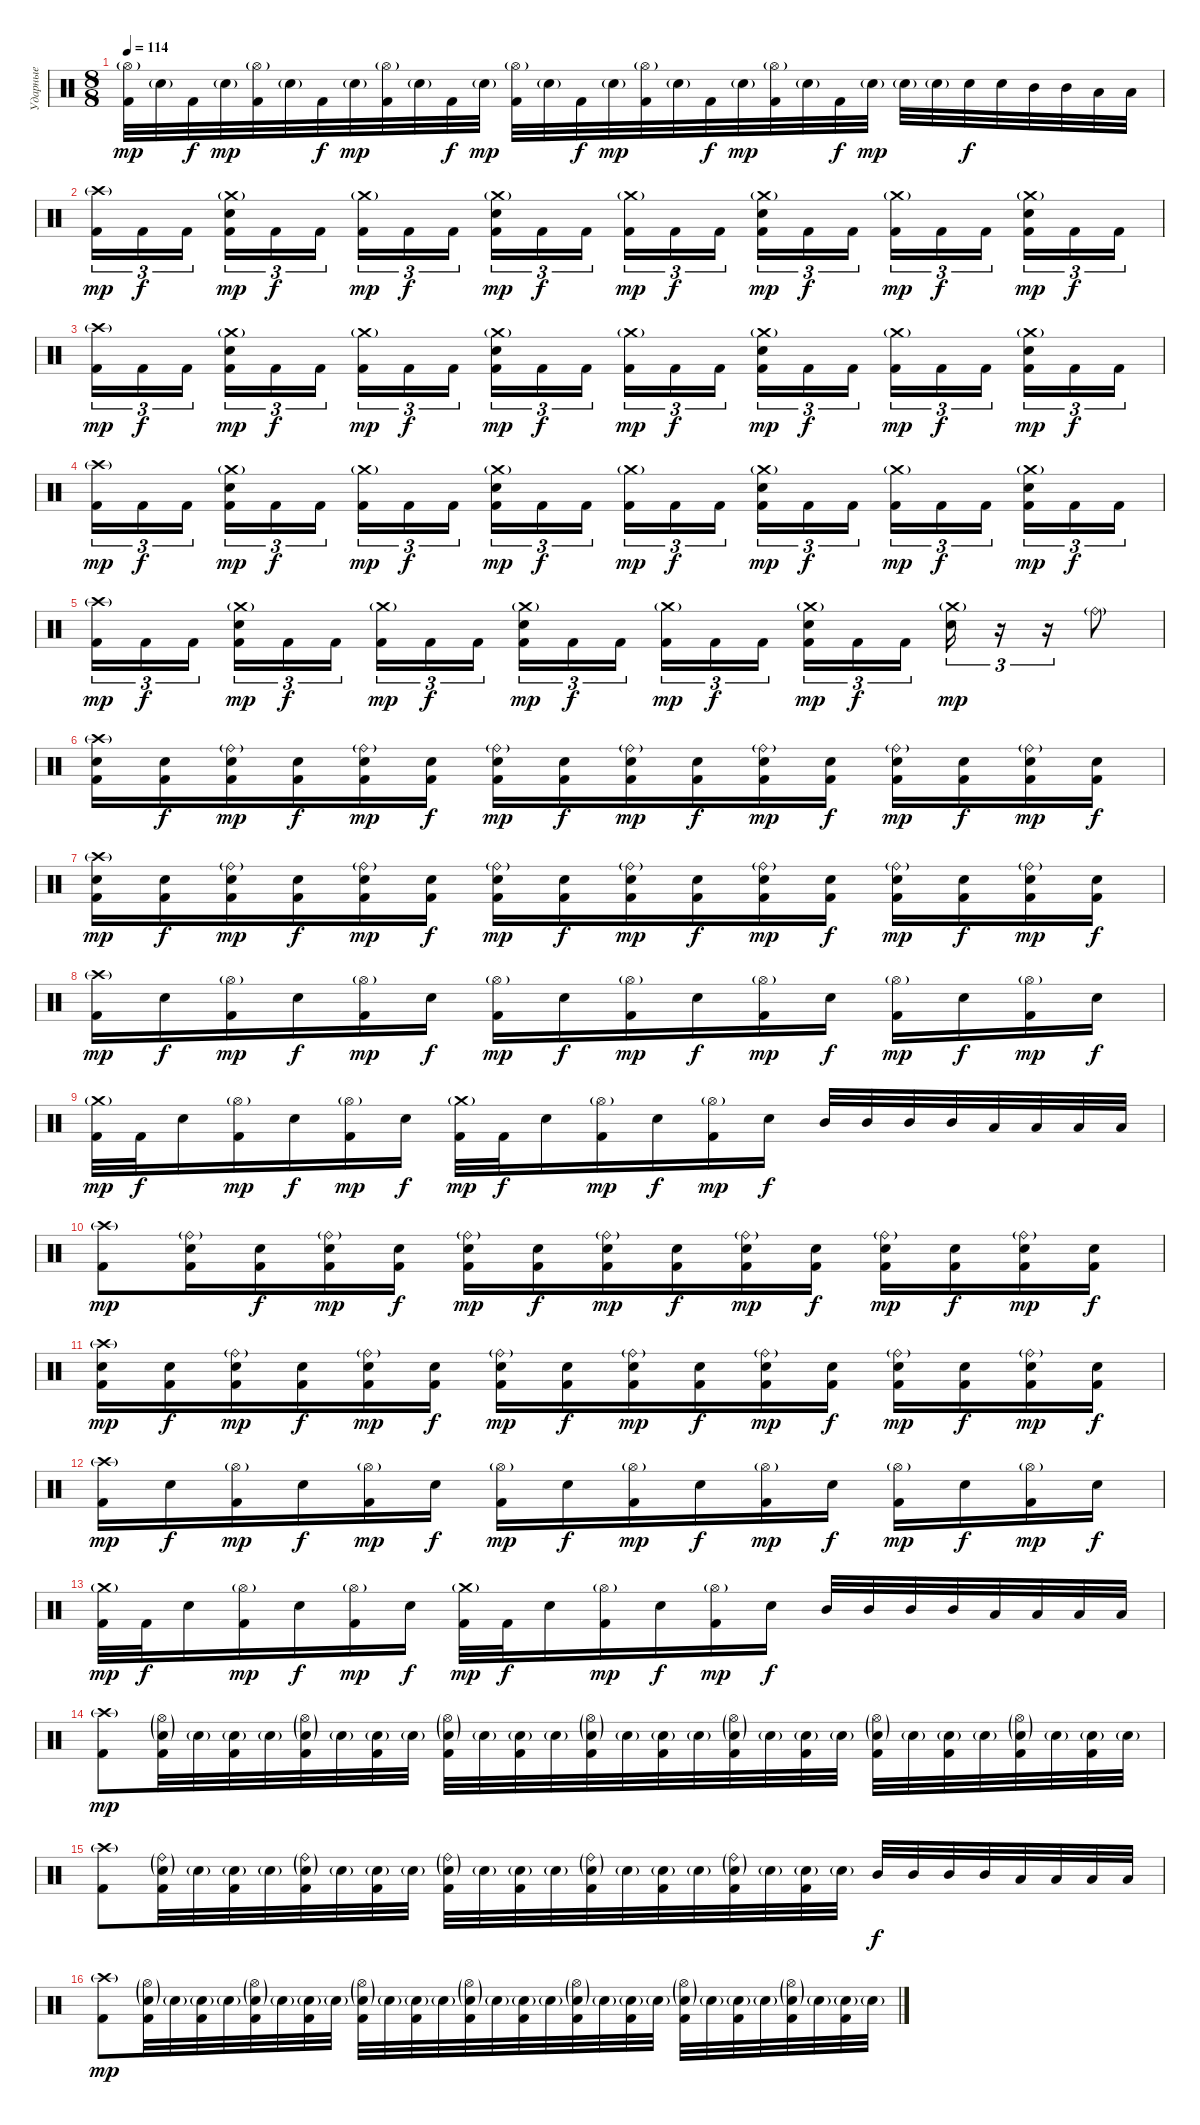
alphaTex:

\track ("Ударные" "Ударные") {instrument percussion}
\staff {score}
\articulation defaults
\ts (8 8)
\tempo 114
\clef neutral
\ks c
("Hi-Hat (open)"{g} "Kick (hit) 2").32{dy mp} "Electric Snare (hit)"{g}.32 "Kick (hit) 2".32{dy f} "Electric Snare (hit)"{g}.32{dy mp} ("Hi-Hat (open)"{g} "Kick (hit) 2").32 "Electric Snare (hit)"{g}.32 "Kick (hit) 2".32{dy f} "Electric Snare (hit)"{g}.32{dy mp} ("Hi-Hat (open)"{g} "Kick (hit) 2").32 "Electric Snare (hit)"{g}.32 "Kick (hit) 2".32{dy f} "Electric Snare (hit)"{g}.32{dy mp} ("Hi-Hat (open)"{g} "Kick (hit) 2").32 "Electric Snare (hit)"{g}.32 "Kick (hit) 2".32{dy f} "Electric Snare (hit)"{g}.32{dy mp} ("Hi-Hat (open)"{g} "Kick (hit) 2").32 "Electric Snare (hit)"{g}.32 "Kick (hit) 2".32{dy f} "Electric Snare (hit)"{g}.32{dy mp} ("Hi-Hat (open)"{g} "Kick (hit) 2").32 "Electric Snare (hit)"{g}.32 "Kick (hit) 2".32{dy f} "Electric Snare (hit)"{g}.32{dy mp} "Electric Snare (hit)"{g}.32 "Electric Snare (hit)"{g}.32 "Electric Snare (hit)".32{dy f} "Electric Snare (hit)".32 "Mid Tom (hit)".32 "Mid Tom (hit)".32 "Low Tom (hit)".32 "Low Tom (hit)".32 |
("Crash high (hit)"{g} "Kick (hit) 2").16{tu (3 2) dy mp} "Kick (hit) 2".16{tu (3 2) dy f} "Kick (hit) 2".16{tu (3 2)} ("Crash medium (hit)"{g} "Electric Snare (hit)" "Kick (hit) 2").16{tu (3 2) dy mp} "Kick (hit) 2".16{tu (3 2) dy f} "Kick (hit) 2".16{tu (3 2)} ("Crash medium (hit)"{g} "Kick (hit) 2").16{tu (3 2) dy mp} "Kick (hit) 2".16{tu (3 2) dy f} "Kick (hit) 2".16{tu (3 2)} ("Crash medium (hit)"{g} "Electric Snare (hit)" "Kick (hit) 2").16{tu (3 2) dy mp} "Kick (hit) 2".16{tu (3 2) dy f} "Kick (hit) 2".16{tu (3 2)} ("Crash medium (hit)"{g} "Kick (hit) 2").16{tu (3 2) dy mp} "Kick (hit) 2".16{tu (3 2) dy f} "Kick (hit) 2".16{tu (3 2)} ("Crash medium (hit)"{g} "Electric Snare (hit)" "Kick (hit) 2").16{tu (3 2) dy mp} "Kick (hit) 2".16{tu (3 2) dy f} "Kick (hit) 2".16{tu (3 2)} ("Crash medium (hit)"{g} "Kick (hit) 2").16{tu (3 2) dy mp} "Kick (hit) 2".16{tu (3 2) dy f} "Kick (hit) 2".16{tu (3 2)} ("Crash medium (hit)"{g} "Electric Snare (hit)" "Kick (hit) 2").16{tu (3 2) dy mp} "Kick (hit) 2".16{tu (3 2) dy f} "Kick (hit) 2".16{tu (3 2)} |
("Crash high (hit)"{g} "Kick (hit) 2").16{tu (3 2) dy mp} "Kick (hit) 2".16{tu (3 2) dy f} "Kick (hit) 2".16{tu (3 2)} ("Crash medium (hit)"{g} "Electric Snare (hit)" "Kick (hit) 2").16{tu (3 2) dy mp} "Kick (hit) 2".16{tu (3 2) dy f} "Kick (hit) 2".16{tu (3 2)} ("Crash medium (hit)"{g} "Kick (hit) 2").16{tu (3 2) dy mp} "Kick (hit) 2".16{tu (3 2) dy f} "Kick (hit) 2".16{tu (3 2)} ("Crash medium (hit)"{g} "Electric Snare (hit)" "Kick (hit) 2").16{tu (3 2) dy mp} "Kick (hit) 2".16{tu (3 2) dy f} "Kick (hit) 2".16{tu (3 2)} ("Crash medium (hit)"{g} "Kick (hit) 2").16{tu (3 2) dy mp} "Kick (hit) 2".16{tu (3 2) dy f} "Kick (hit) 2".16{tu (3 2)} ("Crash medium (hit)"{g} "Electric Snare (hit)" "Kick (hit) 2").16{tu (3 2) dy mp} "Kick (hit) 2".16{tu (3 2) dy f} "Kick (hit) 2".16{tu (3 2)} ("Crash medium (hit)"{g} "Kick (hit) 2").16{tu (3 2) dy mp} "Kick (hit) 2".16{tu (3 2) dy f} "Kick (hit) 2".16{tu (3 2)} ("Crash medium (hit)"{g} "Electric Snare (hit)" "Kick (hit) 2").16{tu (3 2) dy mp} "Kick (hit) 2".16{tu (3 2) dy f} "Kick (hit) 2".16{tu (3 2)} |
("Crash high (hit)"{g} "Kick (hit) 2").16{tu (3 2) dy mp} "Kick (hit) 2".16{tu (3 2) dy f} "Kick (hit) 2".16{tu (3 2)} ("Crash medium (hit)"{g} "Electric Snare (hit)" "Kick (hit) 2").16{tu (3 2) dy mp} "Kick (hit) 2".16{tu (3 2) dy f} "Kick (hit) 2".16{tu (3 2)} ("Crash medium (hit)"{g} "Kick (hit) 2").16{tu (3 2) dy mp} "Kick (hit) 2".16{tu (3 2) dy f} "Kick (hit) 2".16{tu (3 2)} ("Crash medium (hit)"{g} "Electric Snare (hit)" "Kick (hit) 2").16{tu (3 2) dy mp} "Kick (hit) 2".16{tu (3 2) dy f} "Kick (hit) 2".16{tu (3 2)} ("Crash medium (hit)"{g} "Kick (hit) 2").16{tu (3 2) dy mp} "Kick (hit) 2".16{tu (3 2) dy f} "Kick (hit) 2".16{tu (3 2)} ("Crash medium (hit)"{g} "Electric Snare (hit)" "Kick (hit) 2").16{tu (3 2) dy mp} "Kick (hit) 2".16{tu (3 2) dy f} "Kick (hit) 2".16{tu (3 2)} ("Crash medium (hit)"{g} "Kick (hit) 2").16{tu (3 2) dy mp} "Kick (hit) 2".16{tu (3 2) dy f} "Kick (hit) 2".16{tu (3 2)} ("Crash medium (hit)"{g} "Electric Snare (hit)" "Kick (hit) 2").16{tu (3 2) dy mp} "Kick (hit) 2".16{tu (3 2) dy f} "Kick (hit) 2".16{tu (3 2)} |
("Crash high (hit)"{g} "Kick (hit) 2").16{tu (3 2) dy mp} "Kick (hit) 2".16{tu (3 2) dy f} "Kick (hit) 2".16{tu (3 2)} ("Crash medium (hit)"{g} "Electric Snare (hit)" "Kick (hit) 2").16{tu (3 2) dy mp} "Kick (hit) 2".16{tu (3 2) dy f} "Kick (hit) 2".16{tu (3 2)} ("Crash medium (hit)"{g} "Kick (hit) 2").16{tu (3 2) dy mp} "Kick (hit) 2".16{tu (3 2) dy f} "Kick (hit) 2".16{tu (3 2)} ("Crash medium (hit)"{g} "Electric Snare (hit)" "Kick (hit) 2").16{tu (3 2) dy mp} "Kick (hit) 2".16{tu (3 2) dy f} "Kick (hit) 2".16{tu (3 2)} ("Crash medium (hit)"{g} "Kick (hit) 2").16{tu (3 2) dy mp} "Kick (hit) 2".16{tu (3 2) dy f} "Kick (hit) 2".16{tu (3 2)} ("Crash medium (hit)"{g} "Electric Snare (hit)" "Kick (hit) 2").16{tu (3 2) dy mp} "Kick (hit) 2".16{tu (3 2) dy f} "Kick (hit) 2".16{tu (3 2)} ("Crash medium (hit)"{g} "Electric Snare (hit)").16{tu (3 2) dy mp} r.16{tu (3 2)} r.16{tu (3 2)} "Ride (bell)"{g}.8 |
("Crash high (hit)"{g} "Electric Snare (hit)" "Kick (hit) 2").16 ("Electric Snare (hit)" "Kick (hit) 2").16{dy f} ("Ride (bell)"{g} "Electric Snare (hit)" "Kick (hit) 2").16{dy mp} ("Electric Snare (hit)" "Kick (hit) 2").16{dy f} ("Ride (bell)"{g} "Electric Snare (hit)" "Kick (hit) 2").16{dy mp} ("Electric Snare (hit)" "Kick (hit) 2").16{dy f} ("Ride (bell)"{g} "Electric Snare (hit)" "Kick (hit) 2").16{dy mp} ("Electric Snare (hit)" "Kick (hit) 2").16{dy f} ("Ride (bell)"{g} "Electric Snare (hit)" "Kick (hit) 2").16{dy mp} ("Electric Snare (hit)" "Kick (hit) 2").16{dy f} ("Ride (bell)"{g} "Electric Snare (hit)" "Kick (hit) 2").16{dy mp} ("Electric Snare (hit)" "Kick (hit) 2").16{dy f} ("Ride (bell)"{g} "Electric Snare (hit)" "Kick (hit) 2").16{dy mp} ("Electric Snare (hit)" "Kick (hit) 2").16{dy f} ("Ride (bell)"{g} "Electric Snare (hit)" "Kick (hit) 2").16{dy mp} ("Electric Snare (hit)" "Kick (hit) 2").16{dy f} |
("Crash high (hit)"{g} "Electric Snare (hit)" "Kick (hit) 2").16{dy mp} ("Electric Snare (hit)" "Kick (hit) 2").16{dy f} ("Ride (bell)"{g} "Electric Snare (hit)" "Kick (hit) 2").16{dy mp} ("Electric Snare (hit)" "Kick (hit) 2").16{dy f} ("Ride (bell)"{g} "Electric Snare (hit)" "Kick (hit) 2").16{dy mp} ("Electric Snare (hit)" "Kick (hit) 2").16{dy f} ("Ride (bell)"{g} "Electric Snare (hit)" "Kick (hit) 2").16{dy mp} ("Electric Snare (hit)" "Kick (hit) 2").16{dy f} ("Ride (bell)"{g} "Electric Snare (hit)" "Kick (hit) 2").16{dy mp} ("Electric Snare (hit)" "Kick (hit) 2").16{dy f} ("Ride (bell)"{g} "Electric Snare (hit)" "Kick (hit) 2").16{dy mp} ("Electric Snare (hit)" "Kick (hit) 2").16{dy f} ("Ride (bell)"{g} "Electric Snare (hit)" "Kick (hit) 2").16{dy mp} ("Electric Snare (hit)" "Kick (hit) 2").16{dy f} ("Ride (bell)"{g} "Electric Snare (hit)" "Kick (hit) 2").16{dy mp} ("Electric Snare (hit)" "Kick (hit) 2").16{dy f} |
("Crash high (hit)"{g} "Kick (hit) 2").16{dy mp} "Electric Snare (hit)".16{dy f} ("Hi-Hat (open)"{g} "Kick (hit) 2").16{dy mp} "Electric Snare (hit)".16{dy f} ("Hi-Hat (open)"{g} "Kick (hit) 2").16{dy mp} "Electric Snare (hit)".16{dy f} ("Hi-Hat (open)"{g} "Kick (hit) 2").16{dy mp} "Electric Snare (hit)".16{dy f} ("Hi-Hat (open)"{g} "Kick (hit) 2").16{dy mp} "Electric Snare (hit)".16{dy f} ("Hi-Hat (open)"{g} "Kick (hit) 2").16{dy mp} "Electric Snare (hit)".16{dy f} ("Hi-Hat (open)"{g} "Kick (hit) 2").16{dy mp} "Electric Snare (hit)".16{dy f} ("Hi-Hat (open)"{g} "Kick (hit) 2").16{dy mp} "Electric Snare (hit)".16{dy f} |
("Crash medium (hit)"{g} "Kick (hit) 2").32{dy mp} "Kick (hit) 2".32{dy f} "Electric Snare (hit)".16 ("Hi-Hat (open)"{g} "Kick (hit) 2").16{dy mp} "Electric Snare (hit)".16{dy f} ("Hi-Hat (open)"{g} "Kick (hit) 2").16{dy mp} "Electric Snare (hit)".16{dy f} ("Crash medium (hit)"{g} "Kick (hit) 2").32{dy mp} "Kick (hit) 2".32{dy f} "Electric Snare (hit)".16 ("Hi-Hat (open)"{g} "Kick (hit) 2").16{dy mp} "Electric Snare (hit)".16{dy f} ("Hi-Hat (open)"{g} "Kick (hit) 2").16{dy mp} "Electric Snare (hit)".16{dy f} "Mid Tom (hit)".32 "Mid Tom (hit)".32 "Mid Tom (hit)".32 "Mid Tom (hit)".32 "Low Tom (hit)".32 "Low Tom (hit)".32 "Low Tom (hit)".32 "Low Tom (hit)".32 |
("Crash high (hit)"{g} "Kick (hit) 2").8{dy mp} ("Ride (bell)"{g} "Electric Snare (hit)" "Kick (hit) 2").16 ("Electric Snare (hit)" "Kick (hit) 2").16{dy f} ("Ride (bell)"{g} "Electric Snare (hit)" "Kick (hit) 2").16{dy mp} ("Electric Snare (hit)" "Kick (hit) 2").16{dy f} ("Ride (bell)"{g} "Electric Snare (hit)" "Kick (hit) 2").16{dy mp} ("Electric Snare (hit)" "Kick (hit) 2").16{dy f} ("Ride (bell)"{g} "Electric Snare (hit)" "Kick (hit) 2").16{dy mp} ("Electric Snare (hit)" "Kick (hit) 2").16{dy f} ("Ride (bell)"{g} "Electric Snare (hit)" "Kick (hit) 2").16{dy mp} ("Electric Snare (hit)" "Kick (hit) 2").16{dy f} ("Ride (bell)"{g} "Electric Snare (hit)" "Kick (hit) 2").16{dy mp} ("Electric Snare (hit)" "Kick (hit) 2").16{dy f} ("Ride (bell)"{g} "Electric Snare (hit)" "Kick (hit) 2").16{dy mp} ("Electric Snare (hit)" "Kick (hit) 2").16{dy f} |
("Crash high (hit)"{g} "Electric Snare (hit)" "Kick (hit) 2").16{dy mp} ("Electric Snare (hit)" "Kick (hit) 2").16{dy f} ("Ride (bell)"{g} "Electric Snare (hit)" "Kick (hit) 2").16{dy mp} ("Electric Snare (hit)" "Kick (hit) 2").16{dy f} ("Ride (bell)"{g} "Electric Snare (hit)" "Kick (hit) 2").16{dy mp} ("Electric Snare (hit)" "Kick (hit) 2").16{dy f} ("Ride (bell)"{g} "Electric Snare (hit)" "Kick (hit) 2").16{dy mp} ("Electric Snare (hit)" "Kick (hit) 2").16{dy f} ("Ride (bell)"{g} "Electric Snare (hit)" "Kick (hit) 2").16{dy mp} ("Electric Snare (hit)" "Kick (hit) 2").16{dy f} ("Ride (bell)"{g} "Electric Snare (hit)" "Kick (hit) 2").16{dy mp} ("Electric Snare (hit)" "Kick (hit) 2").16{dy f} ("Ride (bell)"{g} "Electric Snare (hit)" "Kick (hit) 2").16{dy mp} ("Electric Snare (hit)" "Kick (hit) 2").16{dy f} ("Ride (bell)"{g} "Electric Snare (hit)" "Kick (hit) 2").16{dy mp} ("Electric Snare (hit)" "Kick (hit) 2").16{dy f} |
("Crash high (hit)"{g} "Kick (hit) 2").16{dy mp} "Electric Snare (hit)".16{dy f} ("Hi-Hat (open)"{g} "Kick (hit) 2").16{dy mp} "Electric Snare (hit)".16{dy f} ("Hi-Hat (open)"{g} "Kick (hit) 2").16{dy mp} "Electric Snare (hit)".16{dy f} ("Hi-Hat (open)"{g} "Kick (hit) 2").16{dy mp} "Electric Snare (hit)".16{dy f} ("Hi-Hat (open)"{g} "Kick (hit) 2").16{dy mp} "Electric Snare (hit)".16{dy f} ("Hi-Hat (open)"{g} "Kick (hit) 2").16{dy mp} "Electric Snare (hit)".16{dy f} ("Hi-Hat (open)"{g} "Kick (hit) 2").16{dy mp} "Electric Snare (hit)".16{dy f} ("Hi-Hat (open)"{g} "Kick (hit) 2").16{dy mp} "Electric Snare (hit)".16{dy f} |
("Crash medium (hit)"{g} "Kick (hit) 2").32{dy mp} "Kick (hit) 2".32{dy f} "Electric Snare (hit)".16 ("Hi-Hat (open)"{g} "Kick (hit) 2").16{dy mp} "Electric Snare (hit)".16{dy f} ("Hi-Hat (open)"{g} "Kick (hit) 2").16{dy mp} "Electric Snare (hit)".16{dy f} ("Crash medium (hit)"{g} "Kick (hit) 2").32{dy mp} "Kick (hit) 2".32{dy f} "Electric Snare (hit)".16 ("Hi-Hat (open)"{g} "Kick (hit) 2").16{dy mp} "Electric Snare (hit)".16{dy f} ("Hi-Hat (open)"{g} "Kick (hit) 2").16{dy mp} "Electric Snare (hit)".16{dy f} "Mid Tom (hit)".32 "Mid Tom (hit)".32 "Mid Tom (hit)".32 "Mid Tom (hit)".32 "Low Tom (hit)".32 "Low Tom (hit)".32 "Low Tom (hit)".32 "Low Tom (hit)".32 |
("Crash high (hit)"{g} "Kick (hit) 2").8{dy mp} ("Hi-Hat (open)"{g} "Electric Snare (hit)"{g} "Kick (hit) 2").32 "Electric Snare (hit)"{g}.32 ("Electric Snare (hit)"{g} "Kick (hit) 2").32 "Electric Snare (hit)"{g}.32 ("Hi-Hat (open)"{g} "Electric Snare (hit)"{g} "Kick (hit) 2").32 "Electric Snare (hit)"{g}.32 ("Electric Snare (hit)"{g} "Kick (hit) 2").32 "Electric Snare (hit)"{g}.32 ("Hi-Hat (open)"{g} "Electric Snare (hit)"{g} "Kick (hit) 2").32 "Electric Snare (hit)"{g}.32 ("Electric Snare (hit)"{g} "Kick (hit) 2").32 "Electric Snare (hit)"{g}.32 ("Hi-Hat (open)"{g} "Electric Snare (hit)"{g} "Kick (hit) 2").32 "Electric Snare (hit)"{g}.32 ("Electric Snare (hit)"{g} "Kick (hit) 2").32 "Electric Snare (hit)"{g}.32 ("Hi-Hat (open)"{g} "Electric Snare (hit)"{g} "Kick (hit) 2").32 "Electric Snare (hit)"{g}.32 ("Electric Snare (hit)"{g} "Kick (hit) 2").32 "Electric Snare (hit)"{g}.32 ("Hi-Hat (open)"{g} "Electric Snare (hit)"{g} "Kick (hit) 2").32 "Electric Snare (hit)"{g}.32 ("Electric Snare (hit)"{g} "Kick (hit) 2").32 "Electric Snare (hit)"{g}.32 ("Hi-Hat (open)"{g} "Electric Snare (hit)"{g} "Kick (hit) 2").32 "Electric Snare (hit)"{g}.32 ("Electric Snare (hit)"{g} "Kick (hit) 2").32 "Electric Snare (hit)"{g}.32 |
("Crash high (hit)"{g} "Kick (hit) 2").8 ("Ride (bell)"{g} "Electric Snare (hit)"{g} "Kick (hit) 2").32 "Electric Snare (hit)"{g}.32 ("Electric Snare (hit)"{g} "Kick (hit) 2").32 "Electric Snare (hit)"{g}.32 ("Ride (bell)"{g} "Electric Snare (hit)"{g} "Kick (hit) 2").32 "Electric Snare (hit)"{g}.32 ("Electric Snare (hit)"{g} "Kick (hit) 2").32 "Electric Snare (hit)"{g}.32 ("Ride (bell)"{g} "Electric Snare (hit)"{g} "Kick (hit) 2").32 "Electric Snare (hit)"{g}.32 ("Electric Snare (hit)"{g} "Kick (hit) 2").32 "Electric Snare (hit)"{g}.32 ("Ride (bell)"{g} "Electric Snare (hit)"{g} "Kick (hit) 2").32 "Electric Snare (hit)"{g}.32 ("Electric Snare (hit)"{g} "Kick (hit) 2").32 "Electric Snare (hit)"{g}.32 ("Ride (bell)"{g} "Electric Snare (hit)"{g} "Kick (hit) 2").32 "Electric Snare (hit)"{g}.32 ("Electric Snare (hit)"{g} "Kick (hit) 2").32 "Electric Snare (hit)"{g}.32 "Mid Tom (hit)".32{dy f} "Mid Tom (hit)".32 "Mid Tom (hit)".32 "Mid Tom (hit)".32 "Low Tom (hit)".32 "Low Tom (hit)".32 "Low Tom (hit)".32 "Low Tom (hit)".32 |
("Crash high (hit)"{g} "Kick (hit) 2").8{dy mp} ("Hi-Hat (open)"{g} "Electric Snare (hit)"{g} "Kick (hit) 2").32 "Electric Snare (hit)"{g}.32 ("Electric Snare (hit)"{g} "Kick (hit) 2").32 "Electric Snare (hit)"{g}.32 ("Hi-Hat (open)"{g} "Electric Snare (hit)"{g} "Kick (hit) 2").32 "Electric Snare (hit)"{g}.32 ("Electric Snare (hit)"{g} "Kick (hit) 2").32 "Electric Snare (hit)"{g}.32 ("Hi-Hat (open)"{g} "Electric Snare (hit)"{g} "Kick (hit) 2").32 "Electric Snare (hit)"{g}.32 ("Electric Snare (hit)"{g} "Kick (hit) 2").32 "Electric Snare (hit)"{g}.32 ("Hi-Hat (open)"{g} "Electric Snare (hit)"{g} "Kick (hit) 2").32 "Electric Snare (hit)"{g}.32 ("Electric Snare (hit)"{g} "Kick (hit) 2").32 "Electric Snare (hit)"{g}.32 ("Hi-Hat (open)"{g} "Electric Snare (hit)"{g} "Kick (hit) 2").32 "Electric Snare (hit)"{g}.32 ("Electric Snare (hit)"{g} "Kick (hit) 2").32 "Electric Snare (hit)"{g}.32 ("Hi-Hat (open)"{g} "Electric Snare (hit)"{g} "Kick (hit) 2").32 "Electric Snare (hit)"{g}.32 ("Electric Snare (hit)"{g} "Kick (hit) 2").32 "Electric Snare (hit)"{g}.32 ("Hi-Hat (open)"{g} "Electric Snare (hit)"{g} "Kick (hit) 2").32 "Electric Snare (hit)"{g}.32 ("Electric Snare (hit)"{g} "Kick (hit) 2").32 "Electric Snare (hit)"{g}.32
